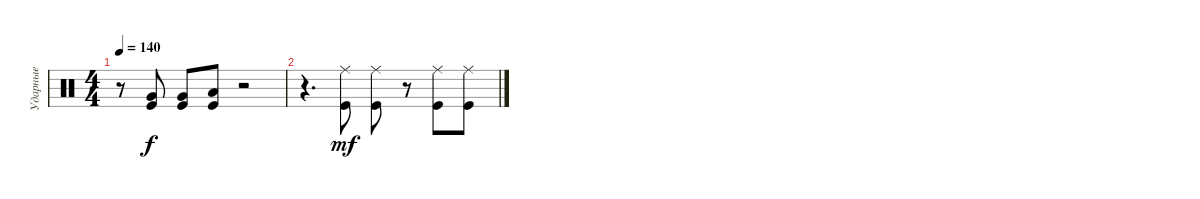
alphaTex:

\track ("Ударные" "Ударные") {instrument percussion}
\staff {score}
\articulation defaults
\ts (4 4)
\tempo 140
\clef neutral
\ks c
r.8{dy mf} ("Kick (hit)" "Very Low Tom (hit)").8{dy f} ("Kick (hit)" "Very Low Tom (hit)").8 ("Kick (hit)" "Low Floor Tom (hit)").8 r.2 |
r.4{d} ("Kick (hit)" "Ride (middle)").8{dy mf} ("Kick (hit)" "Ride (middle)").8 r.8 ("Kick (hit)" "Ride (middle)").8 ("Kick (hit)" "Ride (middle)").8
